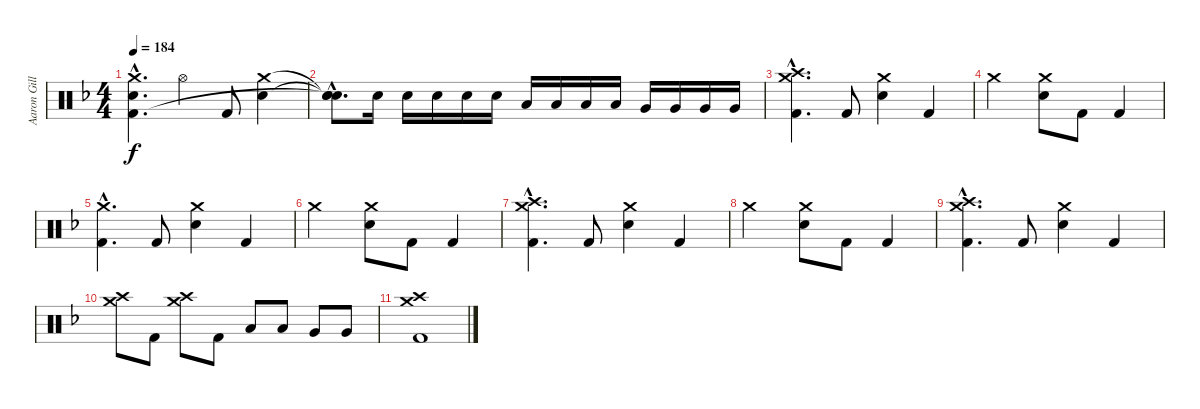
\track ("Aaron Gillespie" "Aaron Gill") {instrument percussion}
\staff {score}
\articulation defaults
\ts (4 4)
\tempo 184
\clef neutral
\ks dminor
("Crash medium (hit)"{hac} "Snare (hit) 2"{hac} "Kick (hit) 2"{hac}).4{d dy f} "Hi-Hat (open)".4 "Kick (hit) 2".8 ("Crash medium (hit)" "Snare (hit) 2").4 |
("Snare (hit)"{hac t} "Snare (hit)"{hac t} "Snare (hit)"{hac t}).8{d} "Snare (hit) 2".16 "Snare (hit) 2".16 "Snare (hit) 2".16 "Snare (hit) 2".16 "Snare (hit) 2".16 "Low Tom (hit)".16 "Low Tom (hit)".16 "Low Tom (hit)".16 "Low Tom (hit)".16 "Very Low Tom (hit)".16 "Very Low Tom (hit)".16 "Very Low Tom (hit)".16 "Very Low Tom (hit)".16 |
("Crash medium (hit)"{hac} "Crash high (hit)"{hac} "Kick (hit) 2"{hac}).4{d} "Kick (hit) 2".8 ("Crash medium (hit)" "Snare (hit) 2").4 "Kick (hit) 2".4 |
"Crash medium (hit)".2 ("Crash medium (hit)" "Snare (hit) 2").8 "Kick (hit) 2".8 "Kick (hit) 2".4 |
("Crash medium (hit)"{hac} "Kick (hit) 2"{hac}).4{d} "Kick (hit) 2".8 ("Crash medium (hit)" "Snare (hit) 2").4 "Kick (hit) 2".4 |
"Crash medium (hit)".2 ("Crash medium (hit)" "Snare (hit) 2").8 "Kick (hit) 2".8 "Kick (hit) 2".4 |
("Crash medium (hit)"{hac} "Crash high (hit)"{hac} "Kick (hit) 2"{hac}).4{d} "Kick (hit) 2".8 ("Crash medium (hit)" "Snare (hit) 2").4 "Kick (hit) 2".4 |
"Crash medium (hit)".2 ("Crash medium (hit)" "Snare (hit) 2").8 "Kick (hit) 2".8 "Kick (hit) 2".4 |
("Crash medium (hit)"{hac} "Crash high (hit)"{hac} "Kick (hit) 2"{hac}).4{d} "Kick (hit) 2".8 ("Crash medium (hit)" "Snare (hit) 2").4 "Kick (hit) 2".4 |
("Crash medium (hit)" "Crash high (hit)").8 "Kick (hit) 2".8 ("Crash medium (hit)" "Crash high (hit)").8 "Kick (hit) 2".8 "Low Tom (hit)".8 "Low Tom (hit)".8 "Very Low Tom (hit)".8 "Very Low Tom (hit)".8 |
("Crash high (hit)" "Crash medium (hit)" "Kick (hit) 2").1
